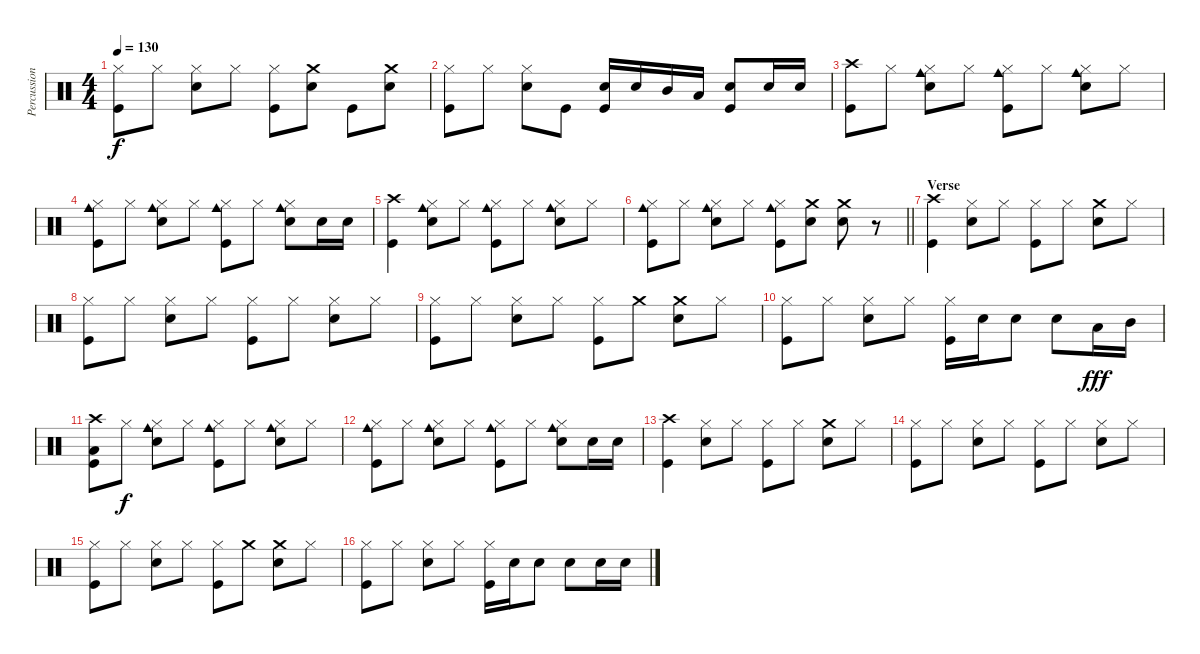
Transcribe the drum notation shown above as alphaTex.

\track ("Percussions" "Percussion") {instrument percussion}
\staff {score}
\articulation defaults
\ts (4 4)
\tempo 130
\clef neutral
\ks c
("Hi-Hat (closed)" "Kick (hit)").8{dy f} "Hi-Hat (closed)".8 ("Hi-Hat (closed)" "Snare (hit) 2").8 "Hi-Hat (closed)".8 ("Hi-Hat (closed)" "Kick (hit)").8 ("Crash medium (hit)" "Snare (hit) 2").8 "Kick (hit)".8 ("Crash medium (hit)" "Snare (hit) 2").8 |
("Hi-Hat (closed)" "Kick (hit)").8 "Hi-Hat (closed)".8 ("Hi-Hat (closed)" "Snare (hit) 2").8 "Kick (hit)".8 ("Snare (hit) 2" "Kick (hit)").16 "Snare (hit) 2".16 "Mid Tom (hit)".16 "Low Tom (hit)".16 ("Snare (hit) 2" "Kick (hit)").8 "Snare (hit) 2".16 "Snare (hit) 2".16 |
("Crash high (hit)" "Kick (hit)").8 "Hi-Hat (closed)".8 ("Cowbell medium (hit)" "Hi-Hat (closed)" "Snare (hit) 2").8 "Hi-Hat (closed)".8 ("Cowbell medium (hit)" "Hi-Hat (closed)" "Kick (hit)").8 "Hi-Hat (closed)".8 ("Cowbell medium (hit)" "Hi-Hat (closed)" "Snare (hit) 2").8 "Hi-Hat (closed)".8 |
("Cowbell medium (hit)" "Hi-Hat (closed)" "Kick (hit)").8 "Hi-Hat (closed)".8 ("Cowbell medium (hit)" "Hi-Hat (closed)" "Snare (hit) 2").8 "Hi-Hat (closed)".8 ("Cowbell medium (hit)" "Hi-Hat (closed)" "Kick (hit)").8 "Hi-Hat (closed)".8 ("Cowbell medium (hit)" "Hi-Hat (closed)" "Snare (hit) 2").8 "Snare (hit) 2".16 "Snare (hit) 2".16 |
("Crash high (hit)" "Kick (hit)").4 ("Cowbell medium (hit)" "Hi-Hat (closed)" "Snare (hit) 2").8 "Hi-Hat (closed)".8 ("Cowbell medium (hit)" "Hi-Hat (closed)" "Kick (hit)").8 "Hi-Hat (closed)".8 ("Cowbell medium (hit)" "Hi-Hat (closed)" "Snare (hit) 2").8 "Hi-Hat (closed)".8 |
\barLineRight lightlight
("Cowbell medium (hit)" "Hi-Hat (closed)" "Kick (hit)").8 "Hi-Hat (closed)".8 ("Cowbell medium (hit)" "Hi-Hat (closed)" "Snare (hit) 2").8 "Hi-Hat (closed)".8 ("Cowbell medium (hit)" "Hi-Hat (closed)" "Kick (hit)").8 ("Crash medium (hit)" "Snare (hit) 2").8 ("Crash medium (hit)" "Snare (hit) 2").8 r.8 |
\section ("" "Verse")
("Crash high (hit)" "Kick (hit)").4 ("Hi-Hat (closed)" "Snare (hit) 2").8 "Hi-Hat (closed)".8 ("Hi-Hat (closed)" "Kick (hit)").8 "Hi-Hat (closed)".8 ("Crash medium (hit)" "Snare (hit) 2").8 "Hi-Hat (closed)".8 |
("Hi-Hat (closed)" "Kick (hit)").8 "Hi-Hat (closed)".8 ("Hi-Hat (closed)" "Snare (hit) 2").8 "Hi-Hat (closed)".8 ("Hi-Hat (closed)" "Kick (hit)").8 "Hi-Hat (closed)".8 ("Hi-Hat (closed)" "Snare (hit) 2").8 "Hi-Hat (closed)".8 |
("Hi-Hat (closed)" "Kick (hit)").8 "Hi-Hat (closed)".8 ("Hi-Hat (closed)" "Snare (hit) 2").8 "Hi-Hat (closed)".8 ("Hi-Hat (closed)" "Kick (hit)").8 "Crash medium (hit)".8 ("Crash medium (hit)" "Snare (hit) 2").8 "Hi-Hat (closed)".8 |
("Hi-Hat (closed)" "Kick (hit)").8 "Hi-Hat (closed)".8 ("Hi-Hat (closed)" "Snare (hit) 2").8 "Hi-Hat (closed)".8 ("Hi-Hat (closed)" "Kick (hit)").16 "Snare (hit) 2".16 "Snare (hit) 2".8 "Snare (hit) 2".8 "Low Tom (hit)".16{dy fff} "Mid Tom (hit)".16 |
("Crash high (hit)" "Low Tom (hit)" "Kick (hit)").8 "Hi-Hat (closed)".8{dy f} ("Cowbell medium (hit)" "Hi-Hat (closed)" "Snare (hit) 2").8 "Hi-Hat (closed)".8 ("Cowbell medium (hit)" "Hi-Hat (closed)" "Kick (hit)").8 "Hi-Hat (closed)".8 ("Cowbell medium (hit)" "Hi-Hat (closed)" "Snare (hit) 2").8 "Hi-Hat (closed)".8 |
("Cowbell medium (hit)" "Hi-Hat (closed)" "Kick (hit)").8 "Hi-Hat (closed)".8 ("Cowbell medium (hit)" "Hi-Hat (closed)" "Snare (hit) 2").8 "Hi-Hat (closed)".8 ("Cowbell medium (hit)" "Hi-Hat (closed)" "Kick (hit)").8 "Hi-Hat (closed)".8 ("Cowbell medium (hit)" "Hi-Hat (closed)" "Snare (hit) 2").8 "Snare (hit) 2".16 "Snare (hit) 2".16 |
("Crash high (hit)" "Kick (hit)").4 ("Hi-Hat (closed)" "Snare (hit) 2").8 "Hi-Hat (closed)".8 ("Hi-Hat (closed)" "Kick (hit)").8 "Hi-Hat (closed)".8 ("Crash medium (hit)" "Snare (hit) 2").8 "Hi-Hat (closed)".8 |
("Hi-Hat (closed)" "Kick (hit)").8 "Hi-Hat (closed)".8 ("Hi-Hat (closed)" "Snare (hit) 2").8 "Hi-Hat (closed)".8 ("Hi-Hat (closed)" "Kick (hit)").8 "Hi-Hat (closed)".8 ("Hi-Hat (closed)" "Snare (hit) 2").8 "Hi-Hat (closed)".8 |
("Hi-Hat (closed)" "Kick (hit)").8 "Hi-Hat (closed)".8 ("Hi-Hat (closed)" "Snare (hit) 2").8 "Hi-Hat (closed)".8 ("Hi-Hat (closed)" "Kick (hit)").8 "Crash medium (hit)".8 ("Crash medium (hit)" "Snare (hit) 2").8 "Hi-Hat (closed)".8 |
("Hi-Hat (closed)" "Kick (hit)").8 "Hi-Hat (closed)".8 ("Hi-Hat (closed)" "Snare (hit) 2").8 "Hi-Hat (closed)".8 ("Hi-Hat (closed)" "Kick (hit)").16 "Snare (hit) 2".16 "Snare (hit) 2".8 "Snare (hit) 2".8 "Snare (hit) 2".16 "Snare (hit) 2".16
